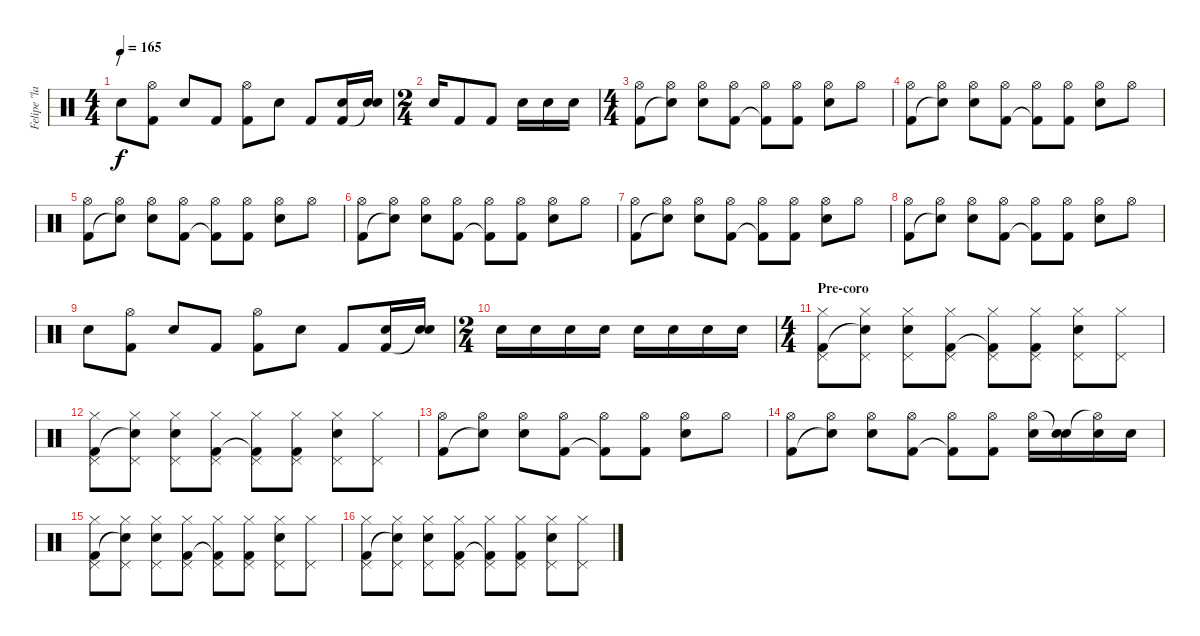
\track ("Felipe \"la caponera\" Muñoz" "Felipe \"la") {instrument percussion}
\staff {score}
\articulation defaults
\ts (4 4)
\section ("" "/")
\tempo 165
\clef neutral
\ks c "Electric Snare (hit)".8{dy f}
("Hi-Hat (open)" "Kick (hit) 2").8 "Electric Snare (hit)".8 "Kick (hit) 2".8 ("Hi-Hat (open)" "Kick (hit) 2").8 "Electric Snare (hit)".8 "Kick (hit) 2".8 ("Electric Snare (hit)" "Kick (hit) 2").16 ("Electric Snare (hit)" "Snare (hit)"{t}).16 |
\ts (2 4)
"Electric Snare (hit)".16 "Kick (hit) 2".8 "Kick (hit) 2".8 "Electric Snare (hit)".16 "Electric Snare (hit)".16 "Electric Snare (hit)".16 |
\ts (4 4)
("Hi-Hat (open)" "Kick (hit) 2").8 ("Hi-Hat (open)" "Snare (hit)"{t}).8 ("Hi-Hat (open)" "Electric Snare (hit)").8 ("Hi-Hat (open)" "Kick (hit) 2").8 ("Hi-Hat (open)" "Kick (hit) 2"{t}).8 ("Hi-Hat (open)" "Kick (hit) 2").8 ("Hi-Hat (open)" "Electric Snare (hit)").8 "Hi-Hat (open)".8 |
("Hi-Hat (open)" "Kick (hit) 2").8 ("Hi-Hat (open)" "Snare (hit)"{t}).8 ("Hi-Hat (open)" "Electric Snare (hit)").8 ("Hi-Hat (open)" "Kick (hit) 2").8 ("Hi-Hat (open)" "Kick (hit) 2"{t}).8 ("Hi-Hat (open)" "Kick (hit) 2").8 ("Hi-Hat (open)" "Electric Snare (hit)").8 "Hi-Hat (open)".8 |
("Hi-Hat (open)" "Kick (hit) 2").8 ("Hi-Hat (open)" "Snare (hit)"{t}).8 ("Hi-Hat (open)" "Electric Snare (hit)").8 ("Hi-Hat (open)" "Kick (hit) 2").8 ("Hi-Hat (open)" "Kick (hit) 2"{t}).8 ("Hi-Hat (open)" "Kick (hit) 2").8 ("Hi-Hat (open)" "Electric Snare (hit)").8 "Hi-Hat (open)".8 |
("Hi-Hat (open)" "Kick (hit) 2").8 ("Hi-Hat (open)" "Snare (hit)"{t}).8 ("Hi-Hat (open)" "Electric Snare (hit)").8 ("Hi-Hat (open)" "Kick (hit) 2").8 ("Hi-Hat (open)" "Kick (hit) 2"{t}).8 ("Hi-Hat (open)" "Kick (hit) 2").8 ("Hi-Hat (open)" "Electric Snare (hit)").8 "Hi-Hat (open)".8 |
("Hi-Hat (open)" "Kick (hit) 2").8 ("Hi-Hat (open)" "Snare (hit)"{t}).8 ("Hi-Hat (open)" "Electric Snare (hit)").8 ("Hi-Hat (open)" "Kick (hit) 2").8 ("Hi-Hat (open)" "Kick (hit) 2"{t}).8 ("Hi-Hat (open)" "Kick (hit) 2").8 ("Hi-Hat (open)" "Electric Snare (hit)").8 "Hi-Hat (open)".8 |
("Hi-Hat (open)" "Kick (hit) 2").8 ("Hi-Hat (open)" "Snare (hit)"{t}).8 ("Hi-Hat (open)" "Electric Snare (hit)").8 ("Hi-Hat (open)" "Kick (hit) 2").8 ("Hi-Hat (open)" "Kick (hit) 2"{t}).8 ("Hi-Hat (open)" "Kick (hit) 2").8 ("Hi-Hat (open)" "Electric Snare (hit)").8 "Hi-Hat (open)".8 |
"Electric Snare (hit)".8 ("Hi-Hat (open)" "Kick (hit) 2").8 "Electric Snare (hit)".8 "Kick (hit) 2".8 ("Hi-Hat (open)" "Kick (hit) 2").8 "Electric Snare (hit)".8 "Kick (hit) 2".8 ("Electric Snare (hit)" "Kick (hit) 2").16 ("Electric Snare (hit)" "Snare (hit)"{t}).16 |
\ts (2 4)
"Electric Snare (hit)".16 "Electric Snare (hit)".16 "Electric Snare (hit)".16 "Electric Snare (hit)".16 "Electric Snare (hit)".16 "Electric Snare (hit)".16 "Electric Snare (hit)".16 "Electric Snare (hit)".16 |
\ts (4 4)
\section ("" "Pre-coro")
("Pedal Hi-Hat (hit)" "Hi-Hat (closed)" "Kick (hit) 2").8 ("Pedal Hi-Hat (hit)" "Hi-Hat (closed)" "Snare (hit)"{t}).8 ("Pedal Hi-Hat (hit)" "Hi-Hat (closed)" "Electric Snare (hit)").8 ("Pedal Hi-Hat (hit)" "Hi-Hat (closed)" "Kick (hit) 2").8 ("Pedal Hi-Hat (hit)" "Hi-Hat (closed)" "Kick (hit) 2"{t}).8 ("Pedal Hi-Hat (hit)" "Hi-Hat (closed)" "Kick (hit) 2").8 ("Pedal Hi-Hat (hit)" "Hi-Hat (closed)" "Electric Snare (hit)").8 ("Pedal Hi-Hat (hit)" "Hi-Hat (closed)").8 |
("Pedal Hi-Hat (hit)" "Hi-Hat (closed)" "Kick (hit) 2").8 ("Pedal Hi-Hat (hit)" "Hi-Hat (closed)" "Snare (hit)"{t}).8 ("Pedal Hi-Hat (hit)" "Hi-Hat (closed)" "Electric Snare (hit)").8 ("Pedal Hi-Hat (hit)" "Hi-Hat (closed)" "Kick (hit) 2").8 ("Pedal Hi-Hat (hit)" "Hi-Hat (closed)" "Kick (hit) 2"{t}).8 ("Pedal Hi-Hat (hit)" "Hi-Hat (closed)" "Kick (hit) 2").8 ("Pedal Hi-Hat (hit)" "Hi-Hat (closed)" "Electric Snare (hit)").8 ("Pedal Hi-Hat (hit)" "Hi-Hat (closed)").8 |
("Hi-Hat (open)" "Kick (hit) 2").8 ("Hi-Hat (open)" "Snare (hit)"{t}).8 ("Hi-Hat (open)" "Electric Snare (hit)").8 ("Hi-Hat (open)" "Kick (hit) 2").8 ("Hi-Hat (open)" "Kick (hit) 2"{t}).8 ("Hi-Hat (open)" "Kick (hit) 2").8 ("Hi-Hat (open)" "Electric Snare (hit)").8 "Hi-Hat (open)".8 |
("Hi-Hat (open)" "Kick (hit) 2").8 ("Hi-Hat (open)" "Snare (hit)"{t}).8 ("Hi-Hat (open)" "Electric Snare (hit)").8 ("Hi-Hat (open)" "Kick (hit) 2").8 ("Hi-Hat (open)" "Kick (hit) 2"{t}).8 ("Hi-Hat (open)" "Kick (hit) 2").8 ("Hi-Hat (open)" "Electric Snare (hit)").16 ("Snare (hit)"{t} "Electric Snare (hit)").16 ("Hi-Hat (open)"{t} "Electric Snare (hit)").16 "Electric Snare (hit)".16 |
("Pedal Hi-Hat (hit)" "Hi-Hat (closed)" "Kick (hit) 2").8 ("Pedal Hi-Hat (hit)" "Hi-Hat (closed)" "Snare (hit)"{t}).8 ("Pedal Hi-Hat (hit)" "Hi-Hat (closed)" "Electric Snare (hit)").8 ("Pedal Hi-Hat (hit)" "Hi-Hat (closed)" "Kick (hit) 2").8 ("Pedal Hi-Hat (hit)" "Hi-Hat (closed)" "Kick (hit) 2"{t}).8 ("Pedal Hi-Hat (hit)" "Hi-Hat (closed)" "Kick (hit) 2").8 ("Pedal Hi-Hat (hit)" "Hi-Hat (closed)" "Electric Snare (hit)").8 ("Pedal Hi-Hat (hit)" "Hi-Hat (closed)").8 |
("Pedal Hi-Hat (hit)" "Hi-Hat (closed)" "Kick (hit) 2").8 ("Pedal Hi-Hat (hit)" "Hi-Hat (closed)" "Snare (hit)"{t}).8 ("Pedal Hi-Hat (hit)" "Hi-Hat (closed)" "Electric Snare (hit)").8 ("Pedal Hi-Hat (hit)" "Hi-Hat (closed)" "Kick (hit) 2").8 ("Pedal Hi-Hat (hit)" "Hi-Hat (closed)" "Kick (hit) 2"{t}).8 ("Pedal Hi-Hat (hit)" "Hi-Hat (closed)" "Kick (hit) 2").8 ("Pedal Hi-Hat (hit)" "Hi-Hat (closed)" "Electric Snare (hit)").8 ("Pedal Hi-Hat (hit)" "Hi-Hat (closed)").8
